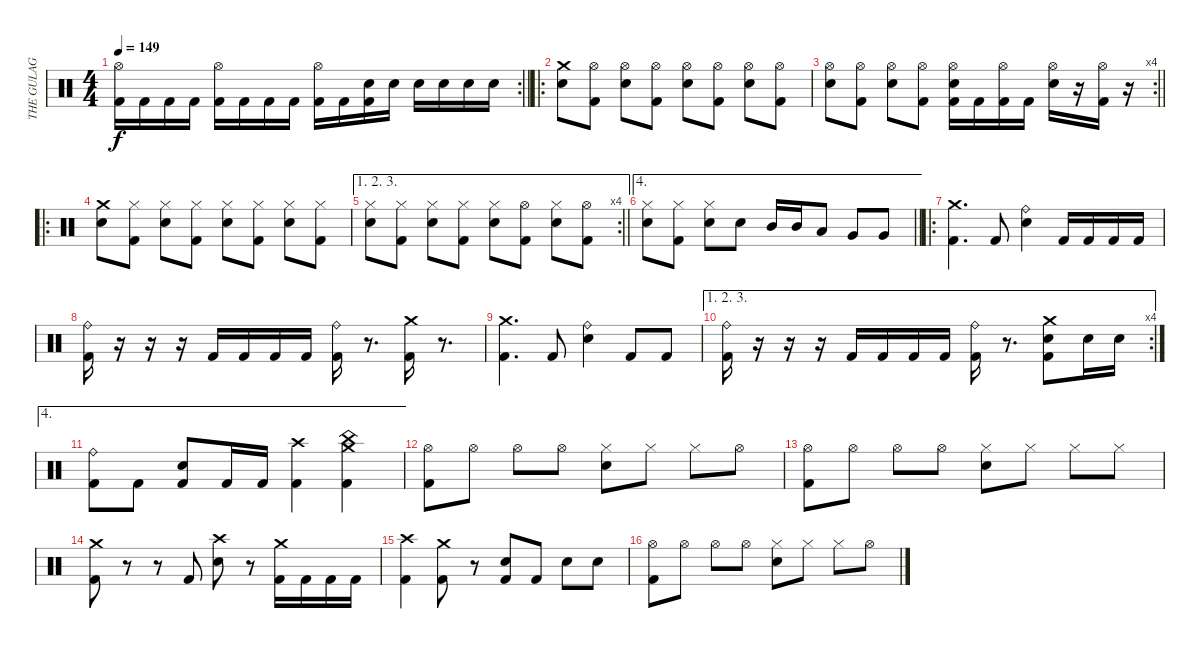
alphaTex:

\track ("THE GULAG" "THE GULAG") {instrument percussion}
\staff {score}
\articulation defaults
\rc 2
\ts (4 4)
\tempo 149
\clef neutral
\barLineRight lightlight
\ks c
("Hi-Hat (open)" "Kick (hit) 2").16{dy f} "Kick (hit) 2".16 "Kick (hit) 2".16 "Kick (hit) 2".16 ("Hi-Hat (open)" "Kick (hit) 2").16 "Kick (hit) 2".16 "Kick (hit) 2".16 "Kick (hit) 2".16 ("Hi-Hat (open)" "Kick (hit) 2").16 "Kick (hit) 2".16 ("Snare (hit) 2" "Kick (hit) 2").16 "Snare (hit) 2".16 "Snare (hit) 2".16 "Snare (hit) 2".16 "Snare (hit) 2".16 "Snare (hit) 2".16 |
\ro
("Crash medium (hit)" "Snare (hit) 2").8 ("Hi-Hat (open)" "Kick (hit) 2").8 ("Hi-Hat (open)" "Snare (hit) 2").8 ("Hi-Hat (open)" "Kick (hit) 2").8 ("Hi-Hat (open)" "Snare (hit) 2").8 ("Hi-Hat (open)" "Kick (hit) 2").8 ("Hi-Hat (open)" "Snare (hit) 2").8 ("Hi-Hat (open)" "Kick (hit) 2").8 |
\rc 4
\barLineRight lightlight
("Hi-Hat (open)" "Snare (hit) 2").8 ("Hi-Hat (open)" "Kick (hit) 2").8 ("Hi-Hat (open)" "Snare (hit) 2").8 ("Hi-Hat (open)" "Kick (hit) 2").8 ("Hi-Hat (open)" "Snare (hit) 2" "Kick (hit) 2").16 "Kick (hit) 2".16 ("Hi-Hat (open)" "Kick (hit) 2").16 "Kick (hit) 2".16 ("Hi-Hat (open)" "Snare (hit) 2").16 r.16 ("Hi-Hat (open)" "Kick (hit) 2").16 r.16 |
\ro
("Crash medium (hit)" "Snare (hit) 2").8 ("Hi-Hat (closed)" "Kick (hit) 2").8 ("Hi-Hat (closed)" "Snare (hit) 2").8 ("Hi-Hat (closed)" "Kick (hit) 2").8 ("Hi-Hat (closed)" "Snare (hit) 2").8 ("Hi-Hat (closed)" "Kick (hit) 2").8 ("Hi-Hat (closed)" "Snare (hit) 2").8 ("Hi-Hat (closed)" "Kick (hit) 2").8 |
\ae (1 2 3)
\rc 4
\barLineRight lightlight
("Hi-Hat (closed)" "Snare (hit) 2").8 ("Hi-Hat (closed)" "Kick (hit) 2").8 ("Hi-Hat (closed)" "Snare (hit) 2").8 ("Hi-Hat (closed)" "Kick (hit) 2").8 ("Hi-Hat (closed)" "Snare (hit) 2").8 ("Hi-Hat (open)" "Kick (hit) 2").8 ("Hi-Hat (closed)" "Snare (hit) 2").8 ("Hi-Hat (open)" "Kick (hit) 2").8 |
\ae 4
\barLineRight lightlight
("Hi-Hat (closed)" "Snare (hit) 2").8 ("Hi-Hat (closed)" "Kick (hit) 2").8 ("Hi-Hat (closed)" "Snare (hit) 2").8 "Snare (hit) 2".8 "Mid Tom (hit)".16 "Mid Tom (hit)".16 "Low Tom (hit)".8 "Very Low Tom (hit)".8 "Very Low Tom (hit)".8 |
\ro
("Crash medium (hit)" "Kick (hit) 2").4{d} "Kick (hit) 2".8 ("Ride (bell)" "Snare (hit) 2").4 "Kick (hit) 2".16 "Kick (hit) 2".16 "Kick (hit) 2".16 "Kick (hit) 2".16 |
("Ride (bell)" "Kick (hit) 2").16 r.16 r.16 r.16 "Kick (hit) 2".16 "Kick (hit) 2".16 "Kick (hit) 2".16 "Kick (hit) 2".16 ("Ride (bell)" "Kick (hit) 2").16 r.8{d} ("Crash medium (hit)" "Kick (hit) 2").16 r.8{d} |
("Crash medium (hit)" "Kick (hit) 2").4{d} "Kick (hit) 2".8 ("Ride (bell)" "Snare (hit) 2").4 "Kick (hit) 2".8 "Kick (hit) 2".8 |
\ae (1 2 3)
\rc 4
("Ride (bell)" "Kick (hit) 2").16 r.16 r.16 r.16 "Kick (hit) 2".16 "Kick (hit) 2".16 "Kick (hit) 2".16 "Kick (hit) 2".16 ("Ride (bell)" "Kick (hit) 2").16 r.8{d} ("Crash medium (hit)" "Snare (hit) 2" "Kick (hit) 2").8 "Snare (hit) 2".16 "Snare (hit) 2".16 |
\ae 4
("Ride (bell)" "Kick (hit) 2").8 "Kick (hit) 2".8 ("Snare (hit) 2" "Kick (hit) 2").8 "Kick (hit) 2".16 "Kick (hit) 2".16 ("Crash high (hit)" "Kick (hit) 2").4 ("China (hit)" "Crash medium (hit)" "Kick (hit) 2").4 |
("Hi-Hat (open)" "Kick (hit) 2").8 "Hi-Hat (open)".8 "Hi-Hat (open)".8 "Hi-Hat (open)".8 ("Hi-Hat (closed)" "Snare (hit) 2").8 "Hi-Hat (closed)".8 "Hi-Hat (closed)".8 "Hi-Hat (open)".8 |
("Hi-Hat (open)" "Kick (hit) 2").8 "Hi-Hat (open)".8 "Hi-Hat (open)".8 "Hi-Hat (open)".8 ("Hi-Hat (closed)" "Snare (hit) 2").8 "Hi-Hat (closed)".8 "Hi-Hat (closed)".8 "Hi-Hat (closed)".8 |
("Crash medium (hit)" "Kick (hit) 2").8 r.8 r.8 "Kick (hit) 2".8 ("Crash high (hit)" "Snare (hit) 2").8 r.8 ("Crash medium (hit)" "Kick (hit) 2").16 "Kick (hit) 2".16 "Kick (hit) 2".16 "Kick (hit) 2".16 |
("Crash high (hit)" "Kick (hit) 2").4 ("Crash medium (hit)" "Kick (hit) 2").8 r.8 ("Snare (hit) 2" "Kick (hit) 2").8 "Kick (hit) 2".8 "Snare (hit) 2".8 "Snare (hit) 2".8 |
("Hi-Hat (open)" "Kick (hit) 2").8 "Hi-Hat (open)".8 "Hi-Hat (open)".8 "Hi-Hat (open)".8 ("Hi-Hat (closed)" "Snare (hit) 2").8 "Hi-Hat (closed)".8 "Hi-Hat (closed)".8 "Hi-Hat (open)".8
